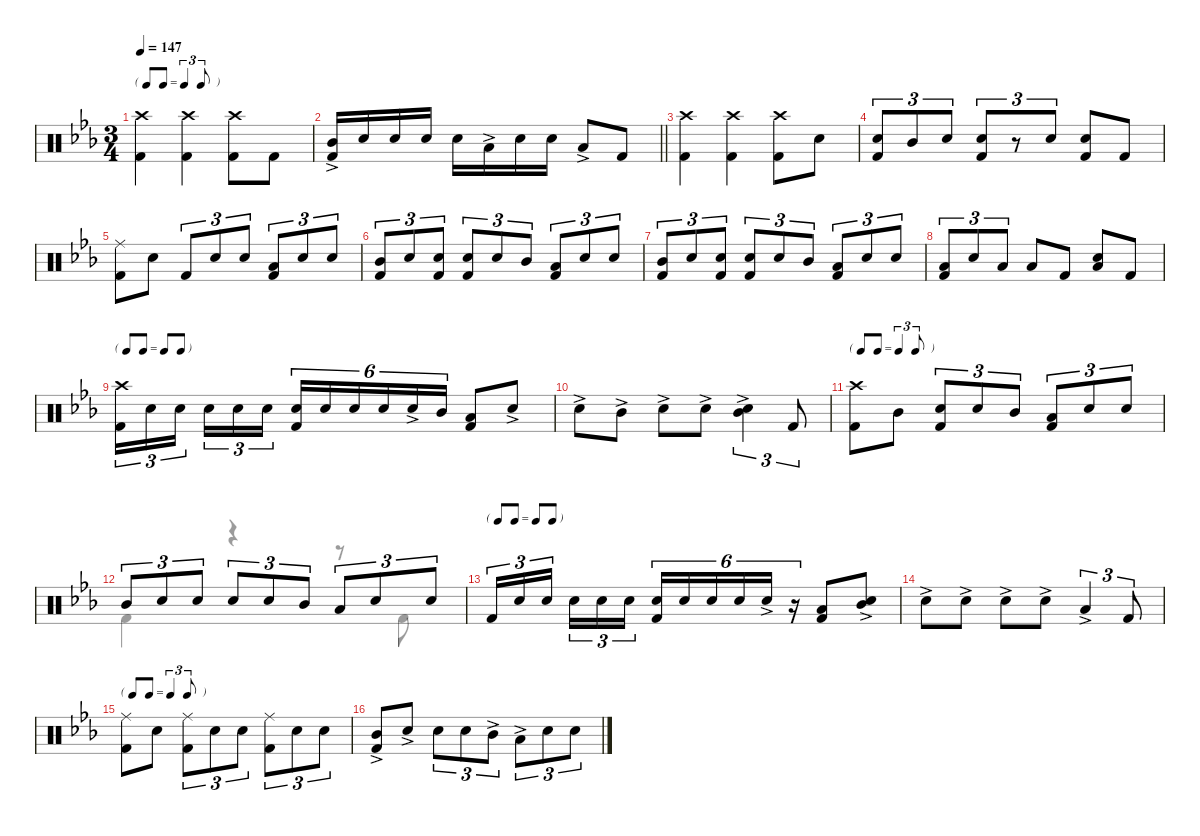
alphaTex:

\defaultSystemsLayout 4
\hideDynamics
\bracketExtendMode nobrackets
\singleTrackTrackNamePolicy hidden
\multiTrackTrackNamePolicy hidden
\firstSystemTrackNameMode fullname
\firstSystemTrackNameOrientation horizontal
\otherSystemsTrackNameOrientation horizontal
\track ("Percussion" "drm.") {defaultSystemsLayout 8 instrument percussion}
\staff {score}
\articulation defaults
\voice
\ts (3 4)
\tf triplet8th
\tempo 147
\clef neutral
\ks eb
("Crash high (hit)"{acc forcenatural} "Kick (hit) 2"{acc forcenatural}).4{dy f beam Down} ("Crash high (hit)"{acc forcenatural} "Kick (hit) 2"{acc forcenatural}).4{beam Down} ("Crash high (hit)"{acc forcenatural} "Kick (hit) 2"{acc forcenatural}).8{beam Down} "Kick (hit) 2"{acc forcenatural}.8{beam Down} |
\barLineRight lightlight
("Mid Tom (hit)"{ac acc forcenatural} "Kick (hit) 2"{acc forcenatural}).16{beam Up} "Snare (hit) 2"{acc forcenatural}.16{beam Up} "Snare (hit) 2"{acc forcenatural}.16{beam Up} "Snare (hit) 2"{acc forcenatural}.16{beam Up} "Snare (hit) 2"{acc forcenatural}.16{beam Down} "Low Tom (hit)"{ac acc forcenatural}.16{beam Down} "Snare (hit) 2"{acc forcenatural}.16{beam Down} "Snare (hit) 2"{acc forcenatural}.16{beam Down} "Low Tom (hit)"{ac acc forcenatural}.8{beam Up} "Kick (hit) 2"{acc forcenatural}.8{dy ff beam Up} |
("Crash high (hit)"{acc forcenatural} "Kick (hit) 2"{acc forcenatural}).4{dy f beam Down} ("Crash high (hit)"{acc forcenatural} "Kick (hit) 2"{acc forcenatural}).4{beam Down} ("Crash high (hit)"{acc forcenatural} "Kick (hit) 2"{acc forcenatural}).8{beam Down} "Snare (hit) 2"{acc forcenatural}.8{beam Down} |
("Snare (hit) 2"{acc forcenatural} "Kick (hit) 2"{acc forcenatural}).8{tu (3 2) beam Up} "Mid Tom (hit)"{acc forcenatural}.8{tu (3 2) beam Up} "Snare (hit) 2"{acc forcenatural}.8{tu (3 2) beam Up} ("Snare (hit) 2"{acc forcenatural} "Kick (hit) 2"{acc forcenatural}).8{tu (3 2) beam Up} r.8{tu (3 2) beam Up} "Snare (hit) 2"{acc forcenatural}.8{tu (3 2) beam Up} ("Snare (hit) 2"{acc forcenatural} "Kick (hit) 2"{acc forcenatural}).8{beam Up} "Kick (hit) 2"{acc forcenatural}.8{beam Up} |
("Ride (middle)"{acc forcenatural} "Kick (hit) 2"{acc forcenatural}).8{beam Down} "Snare (hit) 2"{acc forcenatural}.8{beam Down} "Kick (hit) 2"{acc forcenatural}.8{tu (3 2) beam Up} "Snare (hit) 2"{acc forcenatural}.8{tu (3 2) beam Up} "Snare (hit) 2"{acc forcenatural}.8{tu (3 2) beam Up} ("Low Tom (hit)"{acc forcenatural} "Kick (hit) 2"{acc forcenatural}).8{tu (3 2) beam Up} "Snare (hit) 2"{acc forcenatural}.8{tu (3 2) beam Up} "Snare (hit) 2"{acc forcenatural}.8{tu (3 2) beam Up} |
("Mid Tom (hit)"{acc forcenatural} "Kick (hit) 2"{acc forcenatural}).8{tu (3 2) beam Up} "Snare (hit) 2"{acc forcenatural}.8{tu (3 2) beam Up} ("Snare (hit) 2"{acc forcenatural} "Kick (hit) 2"{acc forcenatural}).8{tu (3 2) beam Up} ("Snare (hit) 2"{acc forcenatural} "Kick (hit) 2"{acc forcenatural}).8{tu (3 2) beam Up} "Snare (hit) 2"{acc forcenatural}.8{tu (3 2) beam Up} "Mid Tom (hit)"{acc forcenatural}.8{tu (3 2) beam Up} ("Low Floor Tom (hit)"{acc forcenatural} "Kick (hit) 2"{acc forcenatural}).8{tu (3 2) beam Up} "Snare (hit) 2"{acc forcenatural}.8{tu (3 2) beam Up} "Snare (hit) 2"{acc forcenatural}.8{tu (3 2) beam Up} |
("Mid Tom (hit)"{acc forcenatural} "Kick (hit) 2"{acc forcenatural}).8{tu (3 2) beam Up} "Snare (hit) 2"{acc forcenatural}.8{tu (3 2) beam Up} ("Snare (hit) 2"{acc forcenatural} "Kick (hit) 2"{acc forcenatural}).8{tu (3 2) beam Up} ("Snare (hit) 2"{acc forcenatural} "Kick (hit) 2"{acc forcenatural}).8{tu (3 2) beam Up} "Snare (hit) 2"{acc forcenatural}.8{tu (3 2) beam Up} "Mid Tom (hit)"{acc forcenatural}.8{tu (3 2) beam Up} ("Low Floor Tom (hit)"{acc forcenatural} "Kick (hit) 2"{acc forcenatural}).8{tu (3 2) beam Up} "Snare (hit) 2"{acc forcenatural}.8{tu (3 2) beam Up} "Snare (hit) 2"{acc forcenatural}.8{tu (3 2) beam Up} |
("Low Floor Tom (hit)"{acc forcenatural} "Kick (hit) 2"{acc forcenatural}).8{tu (3 2) beam Up} "Snare (hit) 2"{acc forcenatural}.8{tu (3 2) beam Up} "Low Tom (hit)"{acc forcenatural}.8{tu (3 2) beam Up} "Low Floor Tom (hit)"{acc forcenatural}.8{beam Up} "Kick (hit) 2"{acc forcenatural}.8{beam Up} ("Snare (hit) 2"{acc forcenatural} "Low Floor Tom (hit)"{acc forcenatural}).8{beam Up} "Kick (hit) 2"{acc forcenatural}.8{beam Up} |
\tf none
("Crash high (hit)"{acc forcenatural} "Kick (hit) 2"{acc forcenatural}).16{tu (3 2) beam Down} "Snare (hit) 2"{acc forcenatural}.16{tu (3 2) beam Down} "Snare (hit) 2"{acc forcenatural}.16{tu (3 2) beam Down} "Snare (hit) 2"{acc forcenatural}.16{tu (3 2) beam Down} "Snare (hit) 2"{acc forcenatural}.16{tu (3 2) beam Down} "Snare (hit) 2"{acc forcenatural}.16{tu (3 2) beam Down} ("Snare (hit) 2"{acc forcenatural} "Kick (hit) 2"{acc forcenatural}).16{tu (6 4) beam Up} "Snare (hit) 2"{acc forcenatural}.16{tu (6 4) beam Up} "Snare (hit) 2"{acc forcenatural}.16{tu (6 4) beam Up} "Snare (hit) 2"{acc forcenatural}.16{tu (6 4) beam Up} "Snare (hit) 2"{ac acc forcenatural}.16{tu (6 4) beam Up} "Mid Tom (hit)"{acc forcenatural}.16{tu (6 4) beam Up} ("Low Tom (hit)"{acc forcenatural} "Kick (hit) 2"{acc forcenatural}).8{beam Up} "Snare (hit) 2"{ac acc forcenatural}.8{beam Up} |
"Snare (hit) 2"{ac acc forcenatural}.8{beam Down} "Mid Tom (hit)"{ac acc forcenatural}.8{beam Down} "Snare (hit) 2"{ac acc forcenatural}.8{beam Down} "Snare (hit) 2"{ac acc forcenatural}.8{beam Down} ("Mid Tom (hit)"{ac acc forcenatural} "Snare (hit) 2"{ac acc forcenatural}).4{tu (3 2) beam Down} "Kick (hit) 2"{acc forcenatural}.8{tu (3 2) beam Up} |
\tf triplet8th
("Crash high (hit)"{acc forcenatural} "Kick (hit) 2"{acc forcenatural}).8{beam Down} "Mid Tom (hit)"{acc forcenatural}.8{beam Down} ("Snare (hit) 2"{acc forcenatural} "Kick (hit) 2"{acc forcenatural}).8{tu (3 2) beam Up} "Snare (hit) 2"{acc forcenatural}.8{tu (3 2) beam Up} "Mid Tom (hit)"{acc forcenatural}.8{tu (3 2) beam Up} ("Low Tom (hit)"{acc forcenatural} "Kick (hit) 2"{acc forcenatural}).8{tu (3 2) beam Up} "Snare (hit) 2"{acc forcenatural}.8{tu (3 2) beam Up} "Snare (hit) 2"{acc forcenatural}.8{tu (3 2) beam Up} |
"Mid Tom (hit)"{acc forcenatural}.8{tu (3 2) beam Up} "Snare (hit) 2"{acc forcenatural}.8{tu (3 2) beam Up} "Snare (hit) 2"{acc forcenatural}.8{tu (3 2) beam Up} "Snare (hit) 2"{acc forcenatural}.8{tu (3 2) beam Up} "Snare (hit) 2"{acc forcenatural}.8{tu (3 2) beam Up} "Mid Tom (hit)"{acc forcenatural}.8{tu (3 2) beam Up} "Low Tom (hit)"{acc forcenatural}.8{tu (3 2) beam Up} "Snare (hit) 2"{acc forcenatural}.8{tu (3 2) beam Up} "Snare (hit) 2"{acc forcenatural}.8{tu (3 2) beam Up} |
\tf none "Kick (hit) 2"{acc forcenatural}.16{tu (3 2) beam Up} "Snare (hit) 2"{acc forcenatural}.16{tu (3 2) beam Up} "Snare (hit) 2"{acc forcenatural}.16{tu (3 2) beam Up} "Snare (hit) 2"{acc forcenatural}.16{tu (3 2) beam Down} "Snare (hit) 2"{acc forcenatural}.16{tu (3 2) beam Down} "Snare (hit) 2"{acc forcenatural}.16{tu (3 2) beam Down}
("Snare (hit) 2"{acc forcenatural} "Kick (hit) 2"{acc forcenatural}).16{tu (6 4) beam Up} "Snare (hit) 2"{acc forcenatural}.16{tu (6 4) beam Up} "Snare (hit) 2"{acc forcenatural}.16{tu (6 4) beam Up} "Snare (hit) 2"{acc forcenatural}.16{tu (6 4) beam Up} "Snare (hit) 2"{ac acc forcenatural}.16{tu (6 4) beam Up} r.16{tu (6 4) beam Up} ("Low Tom (hit)"{acc forcenatural} "Kick (hit) 2"{acc forcenatural}).8{beam Up} ("Mid Tom (hit)"{acc forcenatural} "Snare (hit) 2"{ac acc forcenatural}).8{beam Up} |
"Snare (hit) 2"{ac acc forcenatural}.8{beam Down} "Snare (hit) 2"{ac acc forcenatural}.8{beam Down} "Snare (hit) 2"{ac acc forcenatural}.8{beam Down} "Snare (hit) 2"{ac acc forcenatural}.8{beam Down} "Low Floor Tom (hit)"{ac acc forcenatural}.4{tu (3 2) beam Up} "Kick (hit) 2"{acc forcenatural}.8{tu (3 2) beam Up} |
\tf triplet8th
("Ride (middle)"{acc forcenatural} "Kick (hit) 2"{acc forcenatural}).8{beam Down} "Snare (hit) 2"{acc forcenatural}.8{beam Down} ("Ride (middle)"{acc forcenatural} "Kick (hit) 2"{acc forcenatural}).8{tu (3 2) beam Down} "Snare (hit) 2"{acc forcenatural}.8{tu (3 2) beam Down} "Snare (hit) 2"{acc forcenatural}.8{tu (3 2) beam Down} ("Ride (middle)"{acc forcenatural} "Kick (hit) 2"{acc forcenatural}).8{tu (3 2) beam Down} "Snare (hit) 2"{acc forcenatural}.8{tu (3 2) beam Down} "Snare (hit) 2"{acc forcenatural}.8{tu (3 2) beam Down} |
("Mid Tom (hit)"{ac acc forcenatural} "Kick (hit) 2"{acc forcenatural}).8{beam Up} "Snare (hit) 2"{ac acc forcenatural}.8{beam Up} "Snare (hit) 2"{acc forcenatural}.8{tu (3 2) beam Down} "Snare (hit) 2"{acc forcenatural}.8{tu (3 2) beam Down} "Mid Tom (hit)"{ac acc forcenatural}.8{tu (3 2) beam Down} "Low Tom (hit)"{ac acc forcenatural}.8{tu (3 2) beam Down} "Snare (hit) 2"{acc forcenatural}.8{tu (3 2) beam Down} "Snare (hit) 2"{acc forcenatural}.8{tu (3 2) beam Down}
\voice
\clef neutral
\ottava regular
\simile none
\ks eb
|
\barLineRight lightlight
|
|
|
|
|
|
|
|
|
|
"Kick (hit) 2"{acc forcenatural}.4{beam Down} r.4{beam Down} r.8{beam Down} "Kick (hit) 2"{acc forcenatural}.8{beam Down} |
|
|
|
